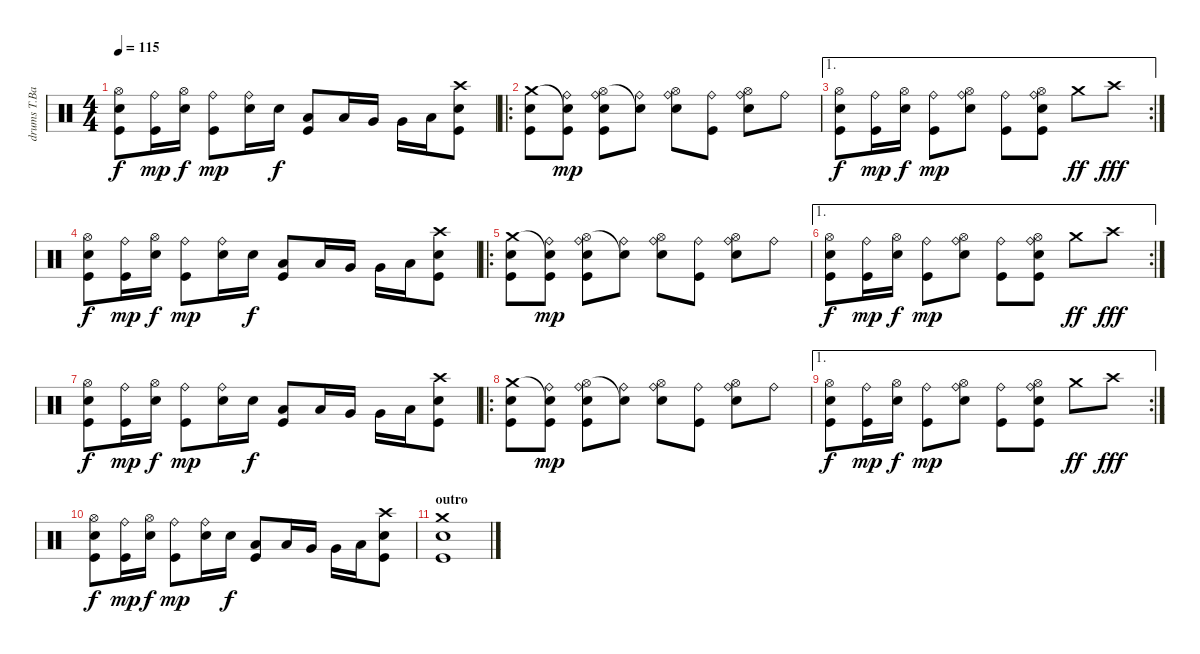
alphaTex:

\track ("drums T.Barker" "drums T.Ba") {instrument percussion}
\staff {score}
\articulation defaults
\ts (4 4)
\tempo 115
\clef neutral
\ks c
("Hi-Hat (open)" "Electric Snare (hit)" "Kick (hit)").8{dy f} ("Ride (bell)" "Kick (hit)").16{dy mp} ("Hi-Hat (open)" "Electric Snare (hit)").16{dy f} ("Ride (bell)" "Kick (hit)").8{dy mp} ("Ride (bell)" "Electric Snare (hit)").16 "Electric Snare (hit)".16{dy f} ("Low Tom (hit)" "Kick (hit)").8 "Low Tom (hit)".16 "Very Low Tom (hit)".16 "Very Low Tom (hit)".16 "Low Floor Tom (hit)".16 ("Crash high (hit)" "Electric Snare (hit)" "Kick (hit)").8 |
\ro
("Crash medium (hit)" "Electric Snare (hit)" "Kick (hit)").8 ("Snare (hit)"{t} "Ride (bell)" "Kick (hit)").8{dy mp} ("Hi-Hat (open)" "Ride (bell)" "Electric Snare (hit)" "Kick (hit)").8 ("Snare (hit)"{t} "Ride (bell)").8 ("Hi-Hat (open)" "Ride (bell)" "Electric Snare (hit)").8 ("Ride (bell)" "Kick (hit)").8 ("Hi-Hat (open)" "Ride (bell)" "Electric Snare (hit)").8 "Ride (bell)".8 |
\ae 1
\rc 2
("Hi-Hat (open)" "Electric Snare (hit)" "Kick (hit)").8{dy f} ("Ride (bell)" "Kick (hit)").16{dy mp} ("Hi-Hat (open)" "Electric Snare (hit)").16{dy f} ("Ride (bell)" "Kick (hit)").8{dy mp} ("Hi-Hat (open)" "Ride (bell)" "Electric Snare (hit)").8 ("Ride (bell)" "Kick (hit)").8 ("Hi-Hat (open)" "Ride (bell)" "Electric Snare (hit)" "Kick (hit)").8 "Crash medium (hit)".8{dy ff} "Crash high (hit)".8{dy fff} |
("Hi-Hat (open)" "Electric Snare (hit)" "Kick (hit)").8{dy f} ("Ride (bell)" "Kick (hit)").16{dy mp} ("Hi-Hat (open)" "Electric Snare (hit)").16{dy f} ("Ride (bell)" "Kick (hit)").8{dy mp} ("Ride (bell)" "Electric Snare (hit)").16 "Electric Snare (hit)".16{dy f} ("Low Tom (hit)" "Kick (hit)").8 "Low Tom (hit)".16 "Very Low Tom (hit)".16 "Very Low Tom (hit)".16 "Low Floor Tom (hit)".16 ("Crash high (hit)" "Electric Snare (hit)" "Kick (hit)").8 |
\ro
("Crash medium (hit)" "Electric Snare (hit)" "Kick (hit)").8 ("Snare (hit)"{t} "Ride (bell)" "Kick (hit)").8{dy mp} ("Hi-Hat (open)" "Ride (bell)" "Electric Snare (hit)" "Kick (hit)").8 ("Snare (hit)"{t} "Ride (bell)").8 ("Hi-Hat (open)" "Ride (bell)" "Electric Snare (hit)").8 ("Ride (bell)" "Kick (hit)").8 ("Hi-Hat (open)" "Ride (bell)" "Electric Snare (hit)").8 "Ride (bell)".8 |
\ae 1
\rc 2
("Hi-Hat (open)" "Electric Snare (hit)" "Kick (hit)").8{dy f} ("Ride (bell)" "Kick (hit)").16{dy mp} ("Hi-Hat (open)" "Electric Snare (hit)").16{dy f} ("Ride (bell)" "Kick (hit)").8{dy mp} ("Hi-Hat (open)" "Ride (bell)" "Electric Snare (hit)").8 ("Ride (bell)" "Kick (hit)").8 ("Hi-Hat (open)" "Ride (bell)" "Electric Snare (hit)" "Kick (hit)").8 "Crash medium (hit)".8{dy ff} "Crash high (hit)".8{dy fff} |
("Hi-Hat (open)" "Electric Snare (hit)" "Kick (hit)").8{dy f} ("Ride (bell)" "Kick (hit)").16{dy mp} ("Hi-Hat (open)" "Electric Snare (hit)").16{dy f} ("Ride (bell)" "Kick (hit)").8{dy mp} ("Ride (bell)" "Electric Snare (hit)").16 "Electric Snare (hit)".16{dy f} ("Low Tom (hit)" "Kick (hit)").8 "Low Tom (hit)".16 "Very Low Tom (hit)".16 "Very Low Tom (hit)".16 "Low Floor Tom (hit)".16 ("Crash high (hit)" "Electric Snare (hit)" "Kick (hit)").8 |
\ro
("Crash medium (hit)" "Electric Snare (hit)" "Kick (hit)").8 ("Snare (hit)"{t} "Ride (bell)" "Kick (hit)").8{dy mp} ("Hi-Hat (open)" "Ride (bell)" "Electric Snare (hit)" "Kick (hit)").8 ("Snare (hit)"{t} "Ride (bell)").8 ("Hi-Hat (open)" "Ride (bell)" "Electric Snare (hit)").8 ("Ride (bell)" "Kick (hit)").8 ("Hi-Hat (open)" "Ride (bell)" "Electric Snare (hit)").8 "Ride (bell)".8 |
\ae 1
\rc 2
("Hi-Hat (open)" "Electric Snare (hit)" "Kick (hit)").8{dy f} ("Ride (bell)" "Kick (hit)").16{dy mp} ("Hi-Hat (open)" "Electric Snare (hit)").16{dy f} ("Ride (bell)" "Kick (hit)").8{dy mp} ("Hi-Hat (open)" "Ride (bell)" "Electric Snare (hit)").8 ("Ride (bell)" "Kick (hit)").8 ("Hi-Hat (open)" "Ride (bell)" "Electric Snare (hit)" "Kick (hit)").8 "Crash medium (hit)".8{dy ff} "Crash high (hit)".8{dy fff} |
("Hi-Hat (open)" "Electric Snare (hit)" "Kick (hit)").8{dy f} ("Ride (bell)" "Kick (hit)").16{dy mp} ("Hi-Hat (open)" "Electric Snare (hit)").16{dy f} ("Ride (bell)" "Kick (hit)").8{dy mp} ("Ride (bell)" "Electric Snare (hit)").16 "Electric Snare (hit)".16{dy f} ("Low Tom (hit)" "Kick (hit)").8 "Low Tom (hit)".16 "Very Low Tom (hit)".16 "Very Low Tom (hit)".16 "Low Floor Tom (hit)".16 ("Crash high (hit)" "Electric Snare (hit)" "Kick (hit)").8 |
\section ("" "outro")
("Crash medium (hit)" "Electric Snare (hit)" "Kick (hit)").1
